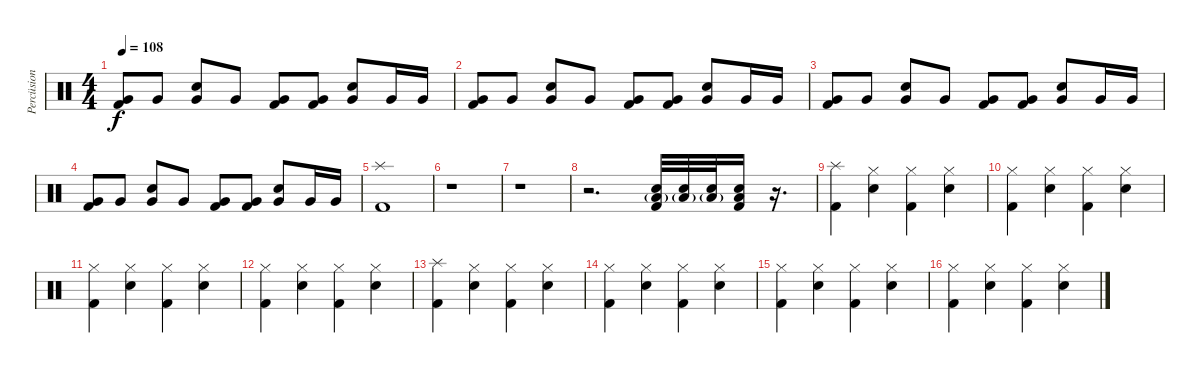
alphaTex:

\track ("Percüsion" "Percüsion") {instrument percussion}
\staff {score}
\articulation defaults
\ts (4 4)
\tempo 108
\clef neutral
\ks c
("Very Low Tom (hit)" "Kick (hit) 2").8{dy f} "Very Low Tom (hit)".8 ("Snare (hit) 2" "Very Low Tom (hit)").8 "Very Low Tom (hit)".8 ("Very Low Tom (hit)" "Kick (hit) 2").8 ("Very Low Tom (hit)" "Kick (hit) 2").8 ("Snare (hit) 2" "Very Low Tom (hit)").8 "Very Low Tom (hit)".16 "Very Low Tom (hit)".16 |
("Very Low Tom (hit)" "Kick (hit) 2").8 "Very Low Tom (hit)".8 ("Snare (hit) 2" "Very Low Tom (hit)").8 "Very Low Tom (hit)".8 ("Very Low Tom (hit)" "Kick (hit) 2").8 ("Very Low Tom (hit)" "Kick (hit) 2").8 ("Snare (hit) 2" "Very Low Tom (hit)").8 "Very Low Tom (hit)".16 "Very Low Tom (hit)".16 |
("Very Low Tom (hit)" "Kick (hit) 2").8 "Very Low Tom (hit)".8 ("Snare (hit) 2" "Very Low Tom (hit)").8 "Very Low Tom (hit)".8 ("Very Low Tom (hit)" "Kick (hit) 2").8 ("Very Low Tom (hit)" "Kick (hit) 2").8 ("Snare (hit) 2" "Very Low Tom (hit)").8 "Very Low Tom (hit)".16 "Very Low Tom (hit)".16 |
("Very Low Tom (hit)" "Kick (hit) 2").8 "Very Low Tom (hit)".8 ("Snare (hit) 2" "Very Low Tom (hit)").8 "Very Low Tom (hit)".8 ("Very Low Tom (hit)" "Kick (hit) 2").8 ("Very Low Tom (hit)" "Kick (hit) 2").8 ("Snare (hit) 2" "Very Low Tom (hit)").8 "Very Low Tom (hit)".16 "Very Low Tom (hit)".16 |
("Splash (hit)" "Kick (hit) 2").1 |
r.1 |
r.1 |
r.2{d} ("Snare (hit) 2" "Low Tom (hit)"{g} "Kick (hit) 2").32 ("Snare (hit) 2" "Low Tom (hit)"{g}).32 ("Snare (hit) 2" "Low Tom (hit)"{g}).32 ("Snare (hit) 2" "Low Tom (hit)" "Kick (hit) 2").16 r.16{d} |
("Splash (hit)" "Kick (hit) 2").4 ("Hi-Hat (closed)" "Snare (hit) 2").4 ("Hi-Hat (closed)" "Kick (hit) 2").4 ("Hi-Hat (closed)" "Snare (hit) 2").4 |
("Hi-Hat (closed)" "Kick (hit) 2").4 ("Hi-Hat (closed)" "Snare (hit) 2").4 ("Hi-Hat (closed)" "Kick (hit) 2").4 ("Hi-Hat (closed)" "Snare (hit) 2").4 |
("Hi-Hat (closed)" "Kick (hit) 2").4 ("Hi-Hat (closed)" "Snare (hit) 2").4 ("Hi-Hat (closed)" "Kick (hit) 2").4 ("Hi-Hat (closed)" "Snare (hit) 2").4 |
("Hi-Hat (closed)" "Kick (hit) 2").4 ("Hi-Hat (closed)" "Snare (hit) 2").4 ("Hi-Hat (closed)" "Kick (hit) 2").4 ("Hi-Hat (closed)" "Snare (hit) 2").4 |
("Splash (hit)" "Kick (hit) 2").4 ("Hi-Hat (closed)" "Snare (hit) 2").4 ("Hi-Hat (closed)" "Kick (hit) 2").4 ("Hi-Hat (closed)" "Snare (hit) 2").4 |
("Hi-Hat (closed)" "Kick (hit) 2").4 ("Hi-Hat (closed)" "Snare (hit) 2").4 ("Hi-Hat (closed)" "Kick (hit) 2").4 ("Hi-Hat (closed)" "Snare (hit) 2").4 |
("Hi-Hat (closed)" "Kick (hit) 2").4 ("Hi-Hat (closed)" "Snare (hit) 2").4 ("Hi-Hat (closed)" "Kick (hit) 2").4 ("Hi-Hat (closed)" "Snare (hit) 2").4 |
("Hi-Hat (closed)" "Kick (hit) 2").4 ("Hi-Hat (closed)" "Snare (hit) 2").4 ("Hi-Hat (closed)" "Kick (hit) 2").4 ("Hi-Hat (closed)" "Snare (hit) 2").4
